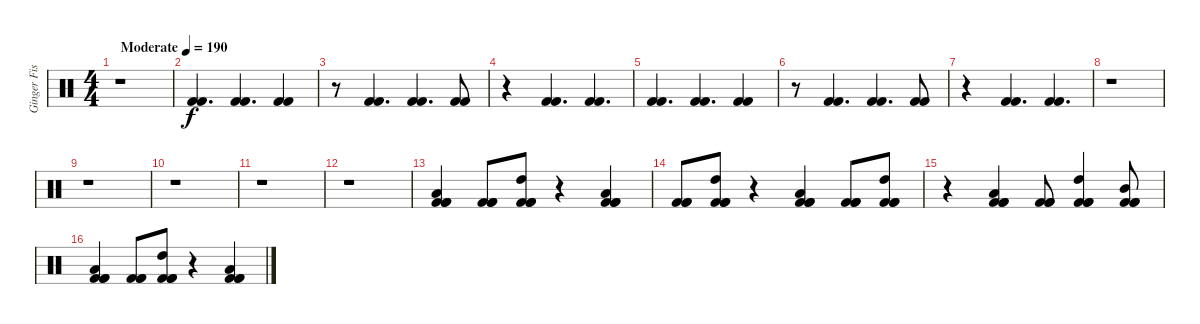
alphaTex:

\track ("Ginger Fish" "Ginger Fis") {instrument percussion}
\staff {score}
\articulation defaults
\ts (4 4)
\tempo (190 "Moderate")
\clef neutral
\ks c
r.1{dy f} |
("Kick (hit) 2" "Kick (hit) 2").4{d} ("Kick (hit) 2" "Kick (hit) 2").4{d} ("Kick (hit) 2" "Kick (hit) 2").4 |
r.8 ("Kick (hit) 2" "Kick (hit) 2").4{d} ("Kick (hit) 2" "Kick (hit) 2").4{d} ("Kick (hit) 2" "Kick (hit) 2").8 |
r.4 ("Kick (hit) 2" "Kick (hit) 2").4{d} ("Kick (hit) 2" "Kick (hit) 2").4{d} |
("Kick (hit) 2" "Kick (hit) 2").4{d} ("Kick (hit) 2" "Kick (hit) 2").4{d} ("Kick (hit) 2" "Kick (hit) 2").4 |
r.8 ("Kick (hit) 2" "Kick (hit) 2").4{d} ("Kick (hit) 2" "Kick (hit) 2").4{d} ("Kick (hit) 2" "Kick (hit) 2").8 |
r.4 ("Kick (hit) 2" "Kick (hit) 2").4{d} ("Kick (hit) 2" "Kick (hit) 2").4{d} |
r.1 |
r.1 |
r.1 |
r.1 |
r.1 |
("Low Tom (hit)" "Kick (hit) 2" "Kick (hit) 2" "Kick (hit) 2").4 ("Kick (hit) 2" "Kick (hit) 2" "Kick (hit) 2").8 ("High Tom (hit)" "Kick (hit) 2" "Kick (hit) 2" "Kick (hit) 2").8 r.4 ("Low Tom (hit)" "Kick (hit) 2" "Kick (hit) 2" "Kick (hit) 2").4 |
("Kick (hit) 2" "Kick (hit) 2" "Kick (hit) 2").8 ("High Tom (hit)" "Kick (hit) 2" "Kick (hit) 2" "Kick (hit) 2").8 r.4 ("Low Tom (hit)" "Kick (hit) 2" "Kick (hit) 2" "Kick (hit) 2").4 ("Kick (hit) 2" "Kick (hit) 2" "Kick (hit) 2").8 ("High Tom (hit)" "Kick (hit) 2" "Kick (hit) 2" "Kick (hit) 2").8 |
r.4 ("Low Tom (hit)" "Kick (hit) 2" "Kick (hit) 2" "Kick (hit) 2").4 ("Kick (hit) 2" "Kick (hit) 2" "Kick (hit) 2").8 ("High Tom (hit)" "Kick (hit) 2" "Kick (hit) 2" "Kick (hit) 2").4 ("Mid Tom (hit)" "Kick (hit) 2" "Kick (hit) 2" "Kick (hit) 2").8 |
("Low Tom (hit)" "Kick (hit) 2" "Kick (hit) 2" "Kick (hit) 2").4 ("Kick (hit) 2" "Kick (hit) 2" "Kick (hit) 2").8 ("High Tom (hit)" "Kick (hit) 2" "Kick (hit) 2" "Kick (hit) 2").8 r.4 ("Low Tom (hit)" "Kick (hit) 2" "Kick (hit) 2" "Kick (hit) 2").4
